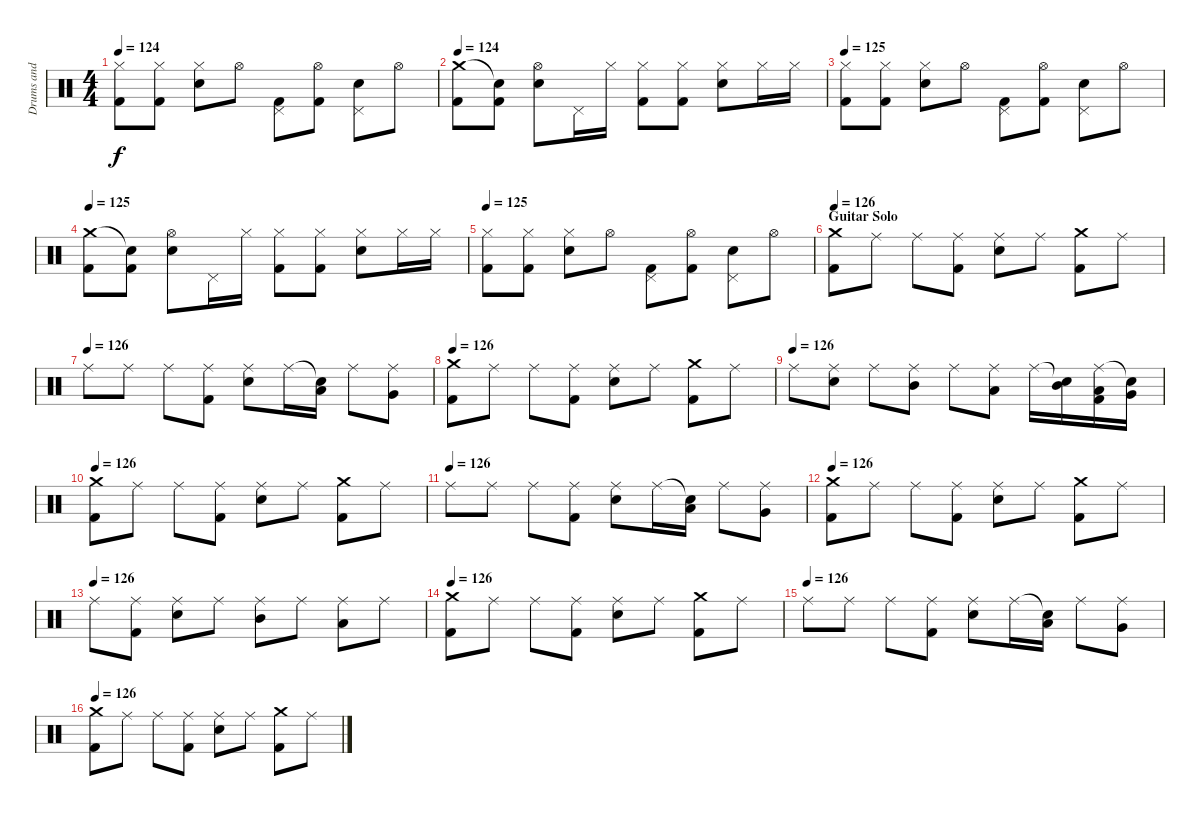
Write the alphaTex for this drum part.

\track ("Drums and Percussion" "Drums and ") {instrument percussion}
\staff {score}
\articulation defaults
\ts (4 4)
\tempo 124
\clef neutral
\ks c
("Hi-Hat (closed)" "Kick (hit) 2").8{dy f} ("Hi-Hat (closed)" "Kick (hit) 2").8 ("Hi-Hat (closed)" "Electric Snare (hit)").8 "Hi-Hat (open)".8 ("Pedal Hi-Hat (hit)" "Kick (hit) 2").8 ("Hi-Hat (open)" "Kick (hit) 2").8 ("Pedal Hi-Hat (hit)" "Electric Snare (hit)").8 "Hi-Hat (open)".8 |
\tempo 124
("Crash medium (hit)" "Kick (hit) 2").8 ("Snare (hit)"{t} "Kick (hit) 2").8 ("Hi-Hat (open)" "Electric Snare (hit)").8 "Pedal Hi-Hat (hit)".16 "Hi-Hat (closed)".16 ("Hi-Hat (closed)" "Kick (hit) 2").8 ("Hi-Hat (closed)" "Kick (hit) 2").8 ("Hi-Hat (closed)" "Electric Snare (hit)").8 "Hi-Hat (closed)".16 "Hi-Hat (closed)".16 |
\tempo 125
("Hi-Hat (closed)" "Kick (hit) 2").8 ("Hi-Hat (closed)" "Kick (hit) 2").8 ("Hi-Hat (closed)" "Electric Snare (hit)").8 "Hi-Hat (open)".8 ("Pedal Hi-Hat (hit)" "Kick (hit) 2").8 ("Hi-Hat (open)" "Kick (hit) 2").8 ("Pedal Hi-Hat (hit)" "Electric Snare (hit)").8 "Hi-Hat (open)".8 |
\tempo 125
("Crash medium (hit)" "Kick (hit) 2").8 ("Snare (hit)"{t} "Kick (hit) 2").8 ("Hi-Hat (open)" "Electric Snare (hit)").8 "Pedal Hi-Hat (hit)".16 "Hi-Hat (closed)".16 ("Hi-Hat (closed)" "Kick (hit) 2").8 ("Hi-Hat (closed)" "Kick (hit) 2").8 ("Hi-Hat (closed)" "Electric Snare (hit)").8 "Hi-Hat (closed)".16 "Hi-Hat (closed)".16 |
\tempo 125
("Hi-Hat (closed)" "Kick (hit) 2").8 ("Hi-Hat (closed)" "Kick (hit) 2").8 ("Hi-Hat (closed)" "Electric Snare (hit)").8 "Hi-Hat (open)".8 ("Pedal Hi-Hat (hit)" "Kick (hit) 2").8 ("Hi-Hat (open)" "Kick (hit) 2").8 ("Pedal Hi-Hat (hit)" "Electric Snare (hit)").8 "Hi-Hat (open)".8 |
\section ("" "Guitar Solo")
\tempo 126
("Crash medium (hit)" "Kick (hit) 2").8 "Ride (middle)".8 "Ride (middle)".8 ("Ride (middle)" "Kick (hit) 2").8 ("Ride (middle)" "Electric Snare (hit)").8 "Ride (middle)".8 ("Crash medium (hit)" "Kick (hit) 2").8 "Ride (middle)".8 |
\tempo (126)
"Ride (middle)".8 "Ride (middle)".8 "Ride (middle)".8 ("Ride (middle)" "Kick (hit) 2").8 ("Ride (middle)" "Electric Snare (hit)").8 "Ride (middle)".16 ("Snare (hit)"{t} "Low Tom (hit)").16 "Ride (middle)".8 ("Ride (middle)" "Very Low Tom (hit)").8 |
\tempo 126
("Crash medium (hit)" "Kick (hit) 2").8 "Ride (middle)".8 "Ride (middle)".8 ("Ride (middle)" "Kick (hit) 2").8 ("Ride (middle)" "Electric Snare (hit)").8 "Ride (middle)".8 ("Crash medium (hit)" "Kick (hit) 2").8 "Ride (middle)".8 |
\tempo (126)
"Ride (middle)".8 ("Ride (middle)" "Electric Snare (hit)").8 "Ride (middle)".8 ("Ride (middle)" "Mid Tom (hit)").8 "Ride (middle)".8 ("Ride (middle)" "Low Tom (hit)").8 "Ride (middle)".16 ("Snare (hit)"{t} "Mid Tom (hit)").16 ("Ride (middle)" "Low Tom (hit)" "Kick (hit) 2").16 ("Snare (hit)"{t} "Very Low Tom (hit)").16 |
\tempo 126
("Crash medium (hit)" "Kick (hit) 2").8 "Ride (middle)".8 "Ride (middle)".8 ("Ride (middle)" "Kick (hit) 2").8 ("Ride (middle)" "Electric Snare (hit)").8 "Ride (middle)".8 ("Crash medium (hit)" "Kick (hit) 2").8 "Ride (middle)".8 |
\tempo (126)
"Ride (middle)".8 "Ride (middle)".8 "Ride (middle)".8 ("Ride (middle)" "Kick (hit) 2").8 ("Ride (middle)" "Electric Snare (hit)").8 "Ride (middle)".16 ("Snare (hit)"{t} "Low Tom (hit)").16 "Ride (middle)".8 ("Ride (middle)" "Very Low Tom (hit)").8 |
\tempo 126
("Crash medium (hit)" "Kick (hit) 2").8 "Ride (middle)".8 "Ride (middle)".8 ("Ride (middle)" "Kick (hit) 2").8 ("Ride (middle)" "Electric Snare (hit)").8 "Ride (middle)".8 ("Crash medium (hit)" "Kick (hit) 2").8 "Ride (middle)".8 |
\tempo (126)
"Ride (middle)".8 ("Ride (middle)" "Kick (hit) 2").8 ("Ride (middle)" "Electric Snare (hit)").8 "Ride (middle)".8 ("Ride (middle)" "Mid Tom (hit)").8 "Ride (middle)".8 ("Ride (middle)" "Low Tom (hit)").8 "Ride (middle)".8 |
\tempo 126
("Crash medium (hit)" "Kick (hit) 2").8 "Ride (middle)".8 "Ride (middle)".8 ("Ride (middle)" "Kick (hit) 2").8 ("Ride (middle)" "Electric Snare (hit)").8 "Ride (middle)".8 ("Crash medium (hit)" "Kick (hit) 2").8 "Ride (middle)".8 |
\tempo (126)
"Ride (middle)".8 "Ride (middle)".8 "Ride (middle)".8 ("Ride (middle)" "Kick (hit) 2").8 ("Ride (middle)" "Electric Snare (hit)").8 "Ride (middle)".16 ("Snare (hit)"{t} "Low Tom (hit)").16 "Ride (middle)".8 ("Ride (middle)" "Very Low Tom (hit)").8 |
\tempo 126
("Crash medium (hit)" "Kick (hit) 2").8 "Ride (middle)".8 "Ride (middle)".8 ("Ride (middle)" "Kick (hit) 2").8 ("Ride (middle)" "Electric Snare (hit)").8 "Ride (middle)".8 ("Crash medium (hit)" "Kick (hit) 2").8 "Ride (middle)".8
